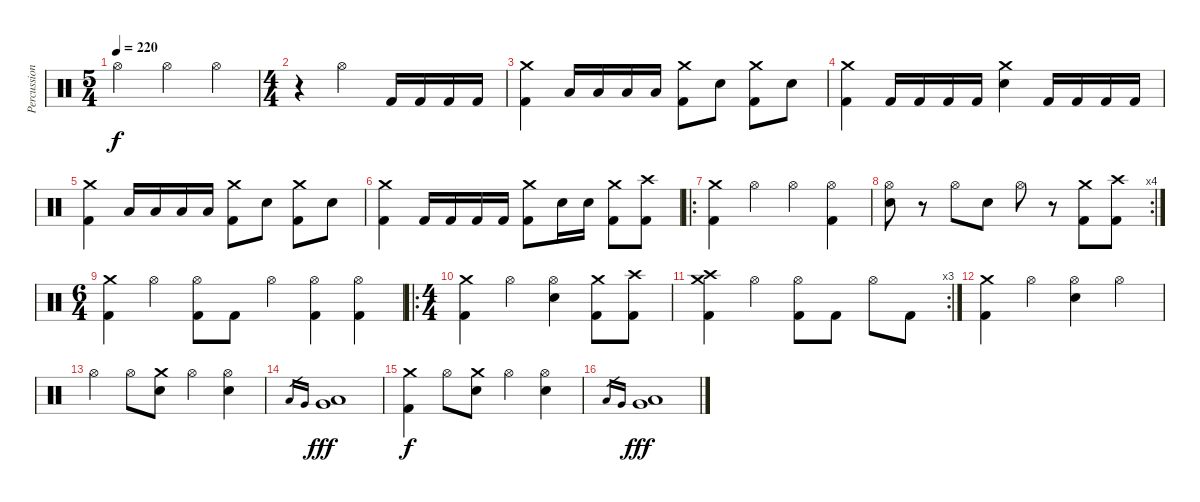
\track ("Percussion" "Percussion") {instrument percussion}
\staff {score}
\articulation defaults
\ts (5 4)
\tempo 220
\clef neutral
\ks c "Hi-Hat (open)".2{dy f} "Hi-Hat (open)".2 "Hi-Hat (open)".4
|
\ts (4 4)
r.4 "Hi-Hat (open)".2 "Kick (hit) 2".16 "Kick (hit) 2".16 "Kick (hit) 2".16 "Kick (hit) 2".16 |
("Kick (hit) 2" "Crash medium (hit)").4 "Low Tom (hit)".16 "Low Tom (hit)".16 "Low Tom (hit)".16 "Low Tom (hit)".16 ("Kick (hit) 2" "Crash medium (hit)").8 "Snare (hit) 2".8 ("Kick (hit) 2" "Crash medium (hit)").8 "Snare (hit) 2".8 |
("Kick (hit) 2" "Crash medium (hit)").4 "Kick (hit) 2".16 "Kick (hit) 2".16 "Kick (hit) 2".16 "Kick (hit) 2".16 ("Snare (hit) 2" "Crash medium (hit)").4 "Kick (hit) 2".16 "Kick (hit) 2".16 "Kick (hit) 2".16 "Kick (hit) 2".16 |
("Kick (hit) 2" "Crash medium (hit)").4 "Low Tom (hit)".16 "Low Tom (hit)".16 "Low Tom (hit)".16 "Low Tom (hit)".16 ("Kick (hit) 2" "Crash medium (hit)").8 "Snare (hit) 2".8 ("Kick (hit) 2" "Crash medium (hit)").8 "Snare (hit) 2".8 |
("Kick (hit) 2" "Crash medium (hit)").4 "Kick (hit) 2".16 "Kick (hit) 2".16 "Kick (hit) 2".16 "Kick (hit) 2".16 ("Crash medium (hit)" "Kick (hit) 2").8 "Snare (hit) 2".16 "Snare (hit) 2".16 ("Kick (hit) 2" "Crash medium (hit)").8 ("Kick (hit) 2" "Crash high (hit)").8 |
\ro
("Kick (hit) 2" "Crash medium (hit)").4 "Hi-Hat (open)".4 "Hi-Hat (open)".4 ("Kick (hit) 2" "Hi-Hat (open)").4 |
\rc 4
("Snare (hit) 2" "Hi-Hat (open)").8 r.8 "Hi-Hat (open)".8 "Snare (hit) 2".8 "Hi-Hat (open)".8 r.8 ("Crash medium (hit)" "Kick (hit) 2").8 ("Crash high (hit)" "Kick (hit) 2").8 |
\ts (6 4)
("Kick (hit) 2" "Crash medium (hit)").4 "Hi-Hat (open)".4 ("Kick (hit) 2" "Hi-Hat (open)").8 "Kick (hit) 2".8 "Hi-Hat (open)".4 ("Kick (hit) 2" "Hi-Hat (open)").4 ("Kick (hit) 2" "Hi-Hat (open)").4 |
\ro
\ts (4 4)
("Crash medium (hit)" "Kick (hit) 2").4 "Hi-Hat (open)".4 ("Snare (hit) 2" "Hi-Hat (open)").4 ("Crash medium (hit)" "Kick (hit) 2").8 ("Crash high (hit)" "Kick (hit) 2").8 |
\rc 3
("Crash medium (hit)" "Crash high (hit)" "Kick (hit) 2").4 "Hi-Hat (open)".4 ("Kick (hit) 2" "Hi-Hat (open)").8 "Kick (hit) 2".8 "Hi-Hat (open)".8 "Kick (hit) 2".8 |
("Crash medium (hit)" "Kick (hit) 2").4 "Hi-Hat (open)".4 ("Snare (hit) 2" "Hi-Hat (open)").4 "Hi-Hat (open)".4 |
"Hi-Hat (open)".4 "Hi-Hat (open)".8 ("Snare (hit) 2" "Crash medium (hit)").8 "Hi-Hat (open)".4 ("Snare (hit) 2" "Hi-Hat (open)").4 |
"Low Tom (hit)".16{gr} "Very Low Tom (hit)".16{gr} ("Low Tom (hit)" "Very Low Tom (hit)").1{dy fff} |
("Crash medium (hit)" "Kick (hit) 2").4{dy f} "Hi-Hat (open)".8 ("Snare (hit) 2" "Crash medium (hit)").8 "Hi-Hat (open)".4 ("Snare (hit) 2" "Hi-Hat (open)").4 |
"Low Tom (hit)".16{gr} "Very Low Tom (hit)".16{gr} ("Low Tom (hit)" "Very Low Tom (hit)").1{dy fff}
